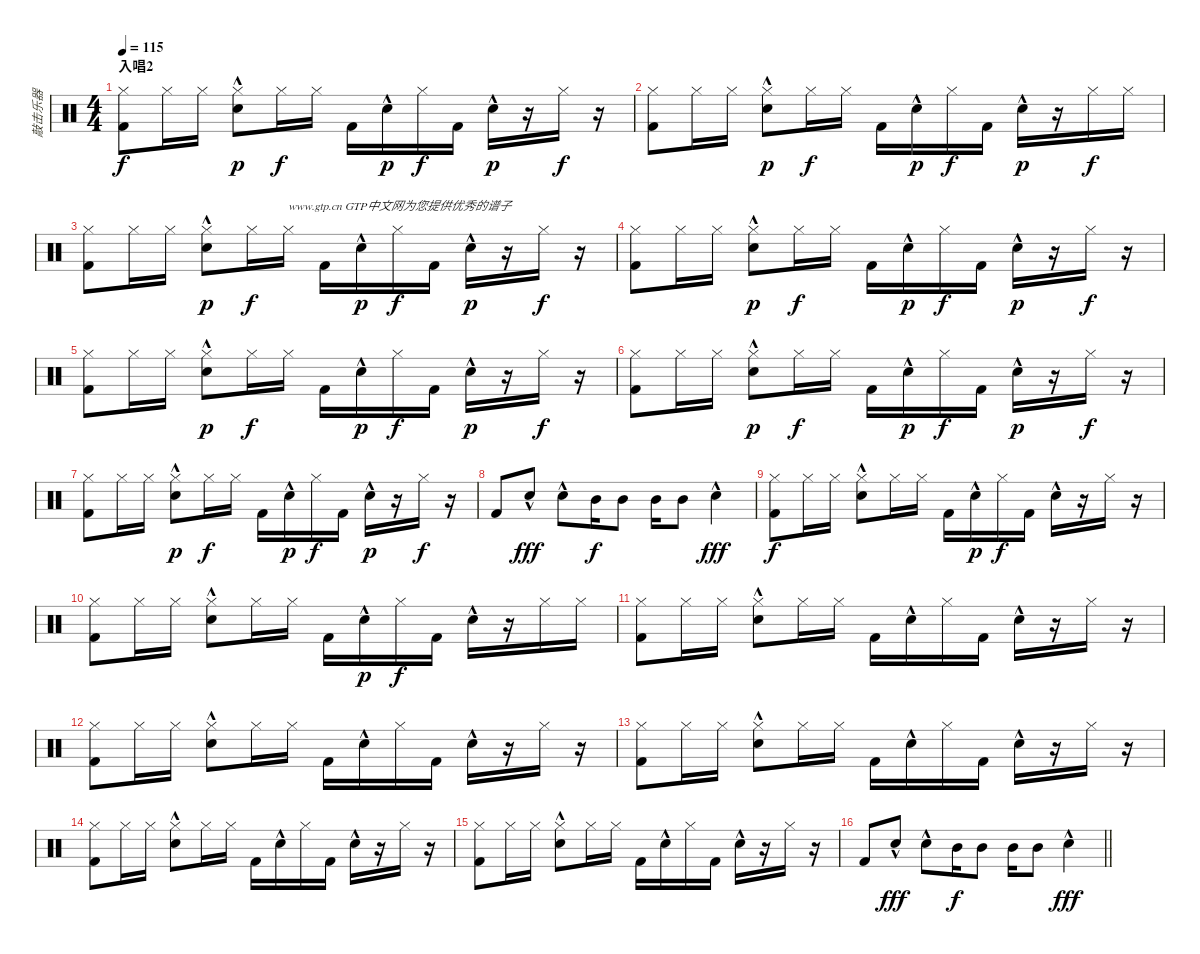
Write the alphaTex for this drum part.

\track ("敲击乐器" "敲击乐器") {instrument percussion}
\staff {score}
\articulation defaults
\ts (4 4)
\section ("" "入唱2")
\tempo 115
\clef neutral
\ks c
("Hi-Hat (closed)" "Kick (hit) 2").8{dy f} "Hi-Hat (closed)".16 "Hi-Hat (closed)".16 ("Hi-Hat (closed)" "Electric Snare (hit)"{hac}).8{dy p} "Hi-Hat (closed)".16{dy f} "Hi-Hat (closed)".16 "Kick (hit) 2".16 "Electric Snare (hit)"{hac}.16{dy p} "Hi-Hat (closed)".16{dy f} "Kick (hit) 2".16 "Electric Snare (hit)"{hac}.16{dy p} r.16 "Hi-Hat (closed)".16{dy f} r.16 |
("Hi-Hat (closed)" "Kick (hit) 2").8 "Hi-Hat (closed)".16 "Hi-Hat (closed)".16 ("Hi-Hat (closed)" "Electric Snare (hit)"{hac}).8{dy p} "Hi-Hat (closed)".16{dy f} "Hi-Hat (closed)".16 "Kick (hit) 2".16 "Electric Snare (hit)"{hac}.16{dy p} "Hi-Hat (closed)".16{dy f} "Kick (hit) 2".16 "Electric Snare (hit)"{hac}.16{dy p} r.16 "Hi-Hat (closed)".16{dy f} "Hi-Hat (closed)".16 |
("Hi-Hat (closed)" "Kick (hit) 2").8 "Hi-Hat (closed)".16 "Hi-Hat (closed)".16 ("Hi-Hat (closed)" "Electric Snare (hit)"{hac}).8{dy p} "Hi-Hat (closed)".16{dy f} "Hi-Hat (closed)".16{txt "www.gtp.cn GTP中文网为您提供优秀的谱子"} "Kick (hit) 2".16 "Electric Snare (hit)"{hac}.16{dy p} "Hi-Hat (closed)".16{dy f} "Kick (hit) 2".16 "Electric Snare (hit)"{hac}.16{dy p} r.16 "Hi-Hat (closed)".16{dy f} r.16 |
("Hi-Hat (closed)" "Kick (hit) 2").8 "Hi-Hat (closed)".16 "Hi-Hat (closed)".16 ("Hi-Hat (closed)" "Electric Snare (hit)"{hac}).8{dy p} "Hi-Hat (closed)".16{dy f} "Hi-Hat (closed)".16 "Kick (hit) 2".16 "Electric Snare (hit)"{hac}.16{dy p} "Hi-Hat (closed)".16{dy f} "Kick (hit) 2".16 "Electric Snare (hit)"{hac}.16{dy p} r.16 "Hi-Hat (closed)".16{dy f} r.16 |
("Hi-Hat (closed)" "Kick (hit) 2").8 "Hi-Hat (closed)".16 "Hi-Hat (closed)".16 ("Hi-Hat (closed)" "Electric Snare (hit)"{hac}).8{dy p} "Hi-Hat (closed)".16{dy f} "Hi-Hat (closed)".16 "Kick (hit) 2".16 "Electric Snare (hit)"{hac}.16{dy p} "Hi-Hat (closed)".16{dy f} "Kick (hit) 2".16 "Electric Snare (hit)"{hac}.16{dy p} r.16 "Hi-Hat (closed)".16{dy f} r.16 |
("Hi-Hat (closed)" "Kick (hit) 2").8 "Hi-Hat (closed)".16 "Hi-Hat (closed)".16 ("Hi-Hat (closed)" "Electric Snare (hit)"{hac}).8{dy p} "Hi-Hat (closed)".16{dy f} "Hi-Hat (closed)".16 "Kick (hit) 2".16 "Electric Snare (hit)"{hac}.16{dy p} "Hi-Hat (closed)".16{dy f} "Kick (hit) 2".16 "Electric Snare (hit)"{hac}.16{dy p} r.16 "Hi-Hat (closed)".16{dy f} r.16 |
("Hi-Hat (closed)" "Kick (hit) 2").8 "Hi-Hat (closed)".16 "Hi-Hat (closed)".16 ("Hi-Hat (closed)" "Electric Snare (hit)"{hac}).8{dy p} "Hi-Hat (closed)".16{dy f} "Hi-Hat (closed)".16 "Kick (hit) 2".16 "Electric Snare (hit)"{hac}.16{dy p} "Hi-Hat (closed)".16{dy f} "Kick (hit) 2".16 "Electric Snare (hit)"{hac}.16{dy p} r.16 "Hi-Hat (closed)".16{dy f} r.16 |
"Kick (hit) 2".8 "Electric Snare (hit)"{hac}.8{dy fff} "Electric Snare (hit)"{hac}.8 "Mid Tom (hit)".16{dy f} "Mid Tom (hit)".8 "Mid Tom (hit)".16 "Mid Tom (hit)".8 "Electric Snare (hit)"{hac}.4{dy fff} |
("Hi-Hat (closed)" "Kick (hit) 2").8{dy f} "Hi-Hat (closed)".16 "Hi-Hat (closed)".16 ("Hi-Hat (closed)" "Electric Snare (hit)"{hac}).8 "Hi-Hat (closed)".16 "Hi-Hat (closed)".16 "Kick (hit) 2".16 "Electric Snare (hit)"{hac}.16{dy p} "Hi-Hat (closed)".16{dy f} "Kick (hit) 2".16 "Electric Snare (hit)"{hac}.16 r.16 "Hi-Hat (closed)".16 r.16 |
("Hi-Hat (closed)" "Kick (hit) 2").8 "Hi-Hat (closed)".16 "Hi-Hat (closed)".16 ("Hi-Hat (closed)" "Electric Snare (hit)"{hac}).8 "Hi-Hat (closed)".16 "Hi-Hat (closed)".16 "Kick (hit) 2".16 "Electric Snare (hit)"{hac}.16{dy p} "Hi-Hat (closed)".16{dy f} "Kick (hit) 2".16 "Electric Snare (hit)"{hac}.16 r.16 "Hi-Hat (closed)".16 "Hi-Hat (closed)".16 |
("Hi-Hat (closed)" "Kick (hit) 2").8 "Hi-Hat (closed)".16 "Hi-Hat (closed)".16 ("Hi-Hat (closed)" "Electric Snare (hit)"{hac}).8 "Hi-Hat (closed)".16 "Hi-Hat (closed)".16 "Kick (hit) 2".16 "Electric Snare (hit)"{hac}.16 "Hi-Hat (closed)".16 "Kick (hit) 2".16 "Electric Snare (hit)"{hac}.16 r.16 "Hi-Hat (closed)".16 r.16 |
("Hi-Hat (closed)" "Kick (hit) 2").8 "Hi-Hat (closed)".16 "Hi-Hat (closed)".16 ("Hi-Hat (closed)" "Electric Snare (hit)"{hac}).8 "Hi-Hat (closed)".16 "Hi-Hat (closed)".16 "Kick (hit) 2".16 "Electric Snare (hit)"{hac}.16 "Hi-Hat (closed)".16 "Kick (hit) 2".16 "Electric Snare (hit)"{hac}.16 r.16 "Hi-Hat (closed)".16 r.16 |
("Hi-Hat (closed)" "Kick (hit) 2").8 "Hi-Hat (closed)".16 "Hi-Hat (closed)".16 ("Hi-Hat (closed)" "Electric Snare (hit)"{hac}).8 "Hi-Hat (closed)".16 "Hi-Hat (closed)".16 "Kick (hit) 2".16 "Electric Snare (hit)"{hac}.16 "Hi-Hat (closed)".16 "Kick (hit) 2".16 "Electric Snare (hit)"{hac}.16 r.16 "Hi-Hat (closed)".16 r.16 |
("Hi-Hat (closed)" "Kick (hit) 2").8 "Hi-Hat (closed)".16 "Hi-Hat (closed)".16 ("Hi-Hat (closed)" "Electric Snare (hit)"{hac}).8 "Hi-Hat (closed)".16 "Hi-Hat (closed)".16 "Kick (hit) 2".16 "Electric Snare (hit)"{hac}.16 "Hi-Hat (closed)".16 "Kick (hit) 2".16 "Electric Snare (hit)"{hac}.16 r.16 "Hi-Hat (closed)".16 r.16 |
("Hi-Hat (closed)" "Kick (hit) 2").8 "Hi-Hat (closed)".16 "Hi-Hat (closed)".16 ("Hi-Hat (closed)" "Electric Snare (hit)"{hac}).8 "Hi-Hat (closed)".16 "Hi-Hat (closed)".16 "Kick (hit) 2".16 "Electric Snare (hit)"{hac}.16 "Hi-Hat (closed)".16 "Kick (hit) 2".16 "Electric Snare (hit)"{hac}.16 r.16 "Hi-Hat (closed)".16 r.16 |
\barLineRight lightlight "Kick (hit) 2".8 "Electric Snare (hit)"{hac}.8{dy fff} "Electric Snare (hit)"{hac}.8 "Mid Tom (hit)".16{dy f} "Mid Tom (hit)".8 "Mid Tom (hit)".16 "Mid Tom (hit)".8 "Electric Snare (hit)"{hac}.4{dy fff}
